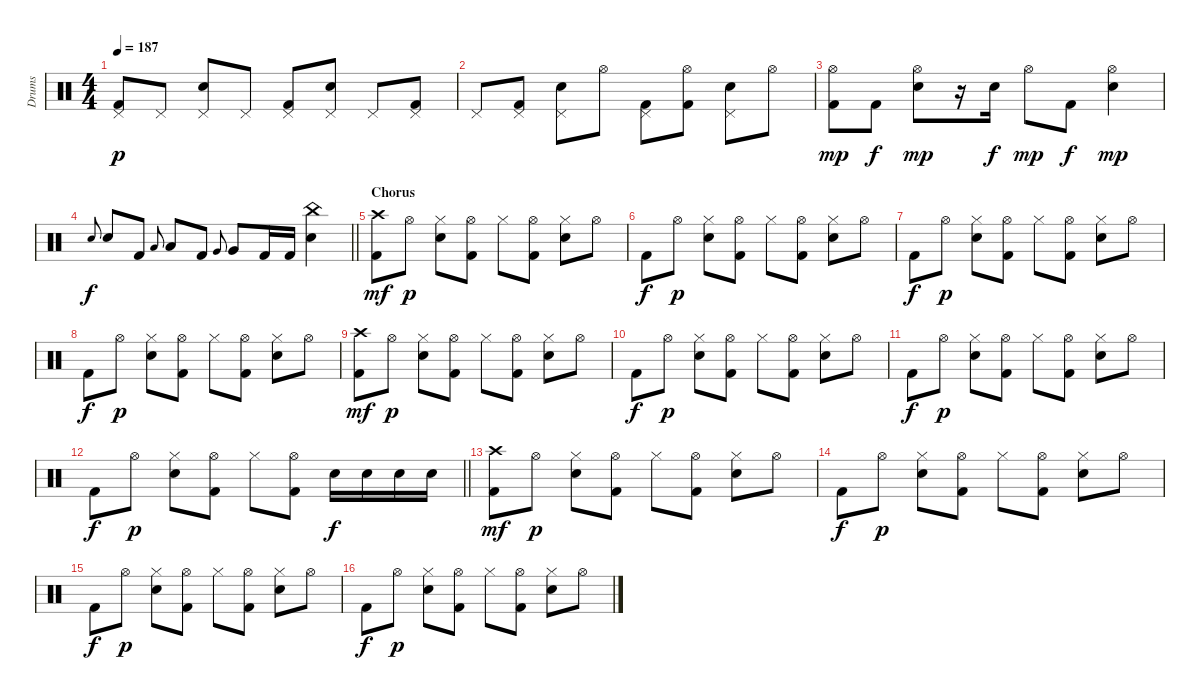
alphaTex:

\track ("Drums" "Drums") {instrument percussion}
\staff {score}
\articulation defaults
\ts (4 4)
\tempo 187
\clef neutral
\ks c
("Pedal Hi-Hat (hit)" "Kick (hit) 2").8{dy p} "Pedal Hi-Hat (hit)".8 ("Pedal Hi-Hat (hit)" "Electric Snare (hit)").8 "Pedal Hi-Hat (hit)".8 ("Pedal Hi-Hat (hit)" "Kick (hit) 2").8 ("Pedal Hi-Hat (hit)" "Electric Snare (hit)").8 "Pedal Hi-Hat (hit)".8 ("Pedal Hi-Hat (hit)" "Kick (hit) 2").8 |
"Pedal Hi-Hat (hit)".8 ("Pedal Hi-Hat (hit)" "Kick (hit) 2").8 ("Pedal Hi-Hat (hit)" "Electric Snare (hit)").8 "Hi-Hat (open)".8 ("Pedal Hi-Hat (hit)" "Kick (hit) 2").8 ("Hi-Hat (open)" "Kick (hit) 2").8 ("Pedal Hi-Hat (hit)" "Electric Snare (hit)").8 "Hi-Hat (open)".8 |
("Hi-Hat (open)" "Kick (hit) 2").8{dy mp} "Kick (hit) 2".8{dy f} ("Hi-Hat (open)" "Electric Snare (hit)").8{dy mp} r.16 "Electric Snare (hit)".16{dy f} "Hi-Hat (open)".8{dy mp} "Kick (hit) 2".8{dy f} ("Hi-Hat (open)" "Electric Snare (hit)").4{dy mp} |
\barLineRight lightlight "Electric Snare (hit)".8{gr onbeat dy f} "Electric Snare (hit)".8 "Kick (hit) 2".8 "Low Tom (hit)".8{gr onbeat} "Low Tom (hit)".8 "Kick (hit) 2".8 "Very Low Tom (hit)".8{gr onbeat} "Very Low Tom (hit)".8 "Kick (hit) 2".16 "Kick (hit) 2".16
("China (hit)" "Electric Snare (hit)").4 |
\section ("" "Chorus")
("Crash high (hit)" "Kick (hit) 2").8{dy mf} "Hi-Hat (open)".8{dy p} ("Hi-Hat (closed)" "Electric Snare (hit)").8 ("Hi-Hat (open)" "Kick (hit) 2").8 "Hi-Hat (closed)".8 ("Hi-Hat (open)" "Kick (hit) 2").8 ("Hi-Hat (closed)" "Electric Snare (hit)").8 "Hi-Hat (open)".8 |
"Kick (hit) 2".8{dy f} "Hi-Hat (open)".8{dy p} ("Hi-Hat (closed)" "Electric Snare (hit)").8 ("Hi-Hat (open)" "Kick (hit) 2").8 "Hi-Hat (closed)".8 ("Hi-Hat (open)" "Kick (hit) 2").8 ("Hi-Hat (closed)" "Electric Snare (hit)").8 "Hi-Hat (open)".8 |
"Kick (hit) 2".8{dy f} "Hi-Hat (open)".8{dy p} ("Hi-Hat (closed)" "Electric Snare (hit)").8 ("Hi-Hat (open)" "Kick (hit) 2").8 "Hi-Hat (closed)".8 ("Hi-Hat (open)" "Kick (hit) 2").8 ("Hi-Hat (closed)" "Electric Snare (hit)").8 "Hi-Hat (open)".8 |
"Kick (hit) 2".8{dy f} "Hi-Hat (open)".8{dy p} ("Hi-Hat (closed)" "Electric Snare (hit)").8 ("Hi-Hat (open)" "Kick (hit) 2").8 "Hi-Hat (closed)".8 ("Hi-Hat (open)" "Kick (hit) 2").8 ("Hi-Hat (closed)" "Electric Snare (hit)").8 "Hi-Hat (open)".8 |
("Crash high (hit)" "Kick (hit) 2").8{dy mf} "Hi-Hat (open)".8{dy p} ("Hi-Hat (closed)" "Electric Snare (hit)").8 ("Hi-Hat (open)" "Kick (hit) 2").8 "Hi-Hat (closed)".8 ("Hi-Hat (open)" "Kick (hit) 2").8 ("Hi-Hat (closed)" "Electric Snare (hit)").8 "Hi-Hat (open)".8 |
"Kick (hit) 2".8{dy f} "Hi-Hat (open)".8{dy p} ("Hi-Hat (closed)" "Electric Snare (hit)").8 ("Hi-Hat (open)" "Kick (hit) 2").8 "Hi-Hat (closed)".8 ("Hi-Hat (open)" "Kick (hit) 2").8 ("Hi-Hat (closed)" "Electric Snare (hit)").8 "Hi-Hat (open)".8 |
"Kick (hit) 2".8{dy f} "Hi-Hat (open)".8{dy p} ("Hi-Hat (closed)" "Electric Snare (hit)").8 ("Hi-Hat (open)" "Kick (hit) 2").8 "Hi-Hat (closed)".8 ("Hi-Hat (open)" "Kick (hit) 2").8 ("Hi-Hat (closed)" "Electric Snare (hit)").8 "Hi-Hat (open)".8 |
\barLineRight lightlight "Kick (hit) 2".8{dy f} "Hi-Hat (open)".8{dy p}
("Hi-Hat (closed)" "Electric Snare (hit)").8 ("Hi-Hat (open)" "Kick (hit) 2").8 "Hi-Hat (closed)".8 ("Hi-Hat (open)" "Kick (hit) 2").8 "Electric Snare (hit)".16{dy f} "Electric Snare (hit)".16 "Electric Snare (hit)".16 "Electric Snare (hit)".16 |
("Crash high (hit)" "Kick (hit) 2").8{dy mf} "Hi-Hat (open)".8{dy p} ("Hi-Hat (closed)" "Electric Snare (hit)").8 ("Hi-Hat (open)" "Kick (hit) 2").8 "Hi-Hat (closed)".8 ("Hi-Hat (open)" "Kick (hit) 2").8 ("Hi-Hat (closed)" "Electric Snare (hit)").8 "Hi-Hat (open)".8 |
"Kick (hit) 2".8{dy f} "Hi-Hat (open)".8{dy p} ("Hi-Hat (closed)" "Electric Snare (hit)").8 ("Hi-Hat (open)" "Kick (hit) 2").8 "Hi-Hat (closed)".8 ("Hi-Hat (open)" "Kick (hit) 2").8 ("Hi-Hat (closed)" "Electric Snare (hit)").8 "Hi-Hat (open)".8 |
"Kick (hit) 2".8{dy f} "Hi-Hat (open)".8{dy p} ("Hi-Hat (closed)" "Electric Snare (hit)").8 ("Hi-Hat (open)" "Kick (hit) 2").8 "Hi-Hat (closed)".8 ("Hi-Hat (open)" "Kick (hit) 2").8 ("Hi-Hat (closed)" "Electric Snare (hit)").8 "Hi-Hat (open)".8 |
"Kick (hit) 2".8{dy f} "Hi-Hat (open)".8{dy p} ("Hi-Hat (closed)" "Electric Snare (hit)").8 ("Hi-Hat (open)" "Kick (hit) 2").8 "Hi-Hat (closed)".8 ("Hi-Hat (open)" "Kick (hit) 2").8 ("Hi-Hat (closed)" "Electric Snare (hit)").8 "Hi-Hat (open)".8
